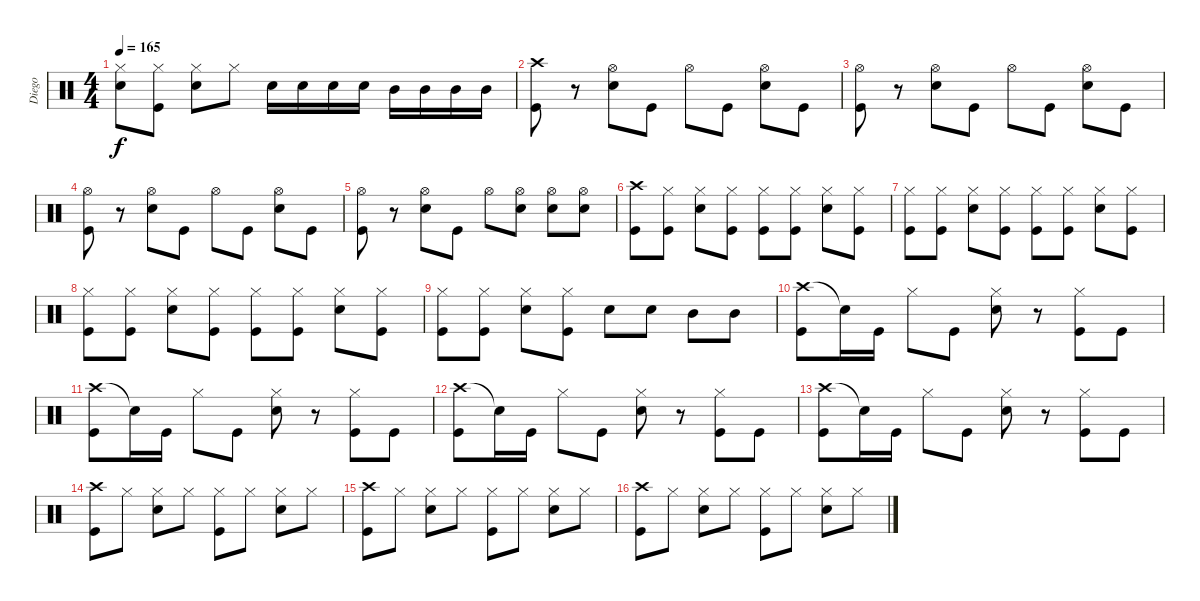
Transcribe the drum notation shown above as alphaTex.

\track ("Diego" "Diego") {instrument percussion}
\staff {score}
\articulation defaults
\ts (4 4)
\tempo 165
\clef neutral
\ks c
("Hi-Hat (closed)" "Snare (hit) 2").8{dy f} ("Hi-Hat (closed)" "Kick (hit)").8 ("Hi-Hat (closed)" "Snare (hit) 2").8 "Hi-Hat (closed)".8 "Snare (hit) 2".16 "Snare (hit) 2".16 "Snare (hit) 2".16 "Snare (hit) 2".16 "Mid Tom (hit)".16 "Mid Tom (hit)".16 "Mid Tom (hit)".16 "Mid Tom (hit)".16 |
("Crash high (hit)" "Kick (hit)").8 r.8 ("Hi-Hat (open)" "Snare (hit) 2").8 "Kick (hit)".8 "Hi-Hat (open)".8 "Kick (hit)".8 ("Hi-Hat (open)" "Snare (hit) 2").8 "Kick (hit)".8 |
("Hi-Hat (open)" "Kick (hit)").8 r.8 ("Hi-Hat (open)" "Snare (hit) 2").8 "Kick (hit)".8 "Hi-Hat (open)".8 "Kick (hit)".8 ("Hi-Hat (open)" "Snare (hit) 2").8 "Kick (hit)".8 |
("Hi-Hat (open)" "Kick (hit)").8 r.8 ("Hi-Hat (open)" "Snare (hit) 2").8 "Kick (hit)".8 "Hi-Hat (open)".8 "Kick (hit)".8 ("Hi-Hat (open)" "Snare (hit) 2").8 "Kick (hit)".8 |
("Hi-Hat (open)" "Kick (hit)").8 r.8 ("Hi-Hat (open)" "Snare (hit) 2").8 "Kick (hit)".8 "Hi-Hat (open)".8 ("Hi-Hat (open)" "Snare (hit) 2").8 ("Hi-Hat (open)" "Snare (hit) 2").8 ("Hi-Hat (open)" "Snare (hit) 2").8 |
("Crash high (hit)" "Kick (hit)").8 ("Hi-Hat (closed)" "Kick (hit)").8 ("Hi-Hat (closed)" "Snare (hit) 2").8 ("Hi-Hat (closed)" "Kick (hit)").8 ("Hi-Hat (closed)" "Kick (hit)").8 ("Hi-Hat (closed)" "Kick (hit)").8 ("Hi-Hat (closed)" "Snare (hit) 2").8 ("Hi-Hat (closed)" "Kick (hit)").8 |
("Hi-Hat (closed)" "Kick (hit)").8 ("Hi-Hat (closed)" "Kick (hit)").8 ("Hi-Hat (closed)" "Snare (hit) 2").8 ("Hi-Hat (closed)" "Kick (hit)").8 ("Hi-Hat (closed)" "Kick (hit)").8 ("Hi-Hat (closed)" "Kick (hit)").8 ("Hi-Hat (closed)" "Snare (hit) 2").8 ("Hi-Hat (closed)" "Kick (hit)").8 |
("Hi-Hat (closed)" "Kick (hit)").8 ("Hi-Hat (closed)" "Kick (hit)").8 ("Hi-Hat (closed)" "Snare (hit) 2").8 ("Hi-Hat (closed)" "Kick (hit)").8 ("Hi-Hat (closed)" "Kick (hit)").8 ("Hi-Hat (closed)" "Kick (hit)").8 ("Hi-Hat (closed)" "Snare (hit) 2").8 ("Hi-Hat (closed)" "Kick (hit)").8 |
("Hi-Hat (closed)" "Kick (hit)").8 ("Hi-Hat (closed)" "Kick (hit)").8 ("Hi-Hat (closed)" "Snare (hit) 2").8 ("Hi-Hat (closed)" "Kick (hit)").8 "Snare (hit) 2".8 "Snare (hit) 2".8 "Mid Tom (hit)".8 "Mid Tom (hit)".8 |
("Crash high (hit)" "Kick (hit)").8 "Snare (hit)"{t}.16 "Kick (hit)".16 "Hi-Hat (closed)".8 "Kick (hit)".8 ("Hi-Hat (closed)" "Snare (hit) 2").8 r.8 ("Hi-Hat (closed)" "Kick (hit)").8 "Kick (hit)".8 |
("Crash high (hit)" "Kick (hit)").8 "Snare (hit)"{t}.16 "Kick (hit)".16 "Hi-Hat (closed)".8 "Kick (hit)".8 ("Hi-Hat (closed)" "Snare (hit) 2").8 r.8 ("Hi-Hat (closed)" "Kick (hit)").8 "Kick (hit)".8 |
("Crash high (hit)" "Kick (hit)").8 "Snare (hit)"{t}.16 "Kick (hit)".16 "Hi-Hat (closed)".8 "Kick (hit)".8 ("Hi-Hat (closed)" "Snare (hit) 2").8 r.8 ("Hi-Hat (closed)" "Kick (hit)").8 "Kick (hit)".8 |
("Crash high (hit)" "Kick (hit)").8 "Snare (hit)"{t}.16 "Kick (hit)".16 "Hi-Hat (closed)".8 "Kick (hit)".8 ("Hi-Hat (closed)" "Snare (hit) 2").8 r.8 ("Hi-Hat (closed)" "Kick (hit)").8 "Kick (hit)".8 |
("Crash high (hit)" "Kick (hit)").8 "Hi-Hat (closed)".8 ("Hi-Hat (closed)" "Snare (hit) 2").8 "Hi-Hat (closed)".8 ("Hi-Hat (closed)" "Kick (hit)").8 "Hi-Hat (closed)".8 ("Hi-Hat (closed)" "Snare (hit) 2").8 "Hi-Hat (closed)".8 |
("Crash high (hit)" "Kick (hit)").8 "Hi-Hat (closed)".8 ("Hi-Hat (closed)" "Snare (hit) 2").8 "Hi-Hat (closed)".8 ("Hi-Hat (closed)" "Kick (hit)").8 "Hi-Hat (closed)".8 ("Hi-Hat (closed)" "Snare (hit) 2").8 "Hi-Hat (closed)".8 |
("Crash high (hit)" "Kick (hit)").8 "Hi-Hat (closed)".8 ("Hi-Hat (closed)" "Snare (hit) 2").8 "Hi-Hat (closed)".8 ("Hi-Hat (closed)" "Kick (hit)").8 "Hi-Hat (closed)".8 ("Hi-Hat (closed)" "Snare (hit) 2").8 "Hi-Hat (closed)".8
